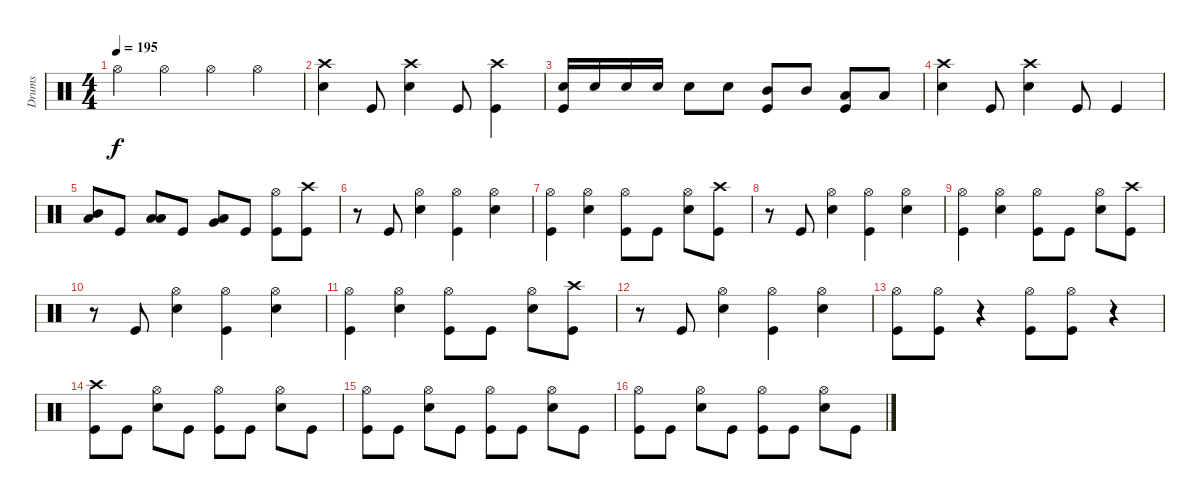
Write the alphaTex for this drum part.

\track ("Drums" "Drums") {instrument percussion}
\staff {score}
\articulation defaults
\ts (4 4)
\tempo 195
\clef neutral
\ks c "Hi-Hat (open)".4{dy f} "Hi-Hat (open)".4 "Hi-Hat (open)".4 "Hi-Hat (open)".4
|
("Crash high (hit)" "Electric Snare (hit)").4 "Kick (hit)".8 ("Crash high (hit)" "Electric Snare (hit)").4 "Kick (hit)".8 ("Crash high (hit)" "Kick (hit)").4 |
("Electric Snare (hit)" "Kick (hit)").16 "Electric Snare (hit)".16 "Electric Snare (hit)".16 "Electric Snare (hit)".16 "Electric Snare (hit)".8 "Electric Snare (hit)".8 ("Mid Tom (hit)" "Kick (hit)").8 "Mid Tom (hit)".8 ("Low Tom (hit)" "Kick (hit)").8 "Low Tom (hit)".8 |
("Crash high (hit)" "Electric Snare (hit)").4 "Kick (hit)".8 ("Crash high (hit)" "Electric Snare (hit)").4 "Kick (hit)".8 "Kick (hit)".4 |
("Mid Tom (hit)" "Low Tom (hit)").8 "Kick (hit)".8 ("Low Tom (hit)" "Low Tom (hit)").8 "Kick (hit)".8 ("Very Low Tom (hit)" "Low Floor Tom (hit)").8 "Kick (hit)".8 ("Hi-Hat (open)" "Kick (hit)").8 ("Crash high (hit)" "Kick (hit)").8 |
r.8 "Kick (hit)".8 ("Hi-Hat (open)" "Electric Snare (hit)").4 ("Hi-Hat (open)" "Kick (hit)").4 ("Hi-Hat (open)" "Electric Snare (hit)").4 |
("Hi-Hat (open)" "Kick (hit)").4 ("Hi-Hat (open)" "Electric Snare (hit)").4 ("Hi-Hat (open)" "Kick (hit)").8 "Kick (hit)".8 ("Hi-Hat (open)" "Electric Snare (hit)").8 ("Crash high (hit)" "Kick (hit)").8 |
r.8 "Kick (hit)".8 ("Hi-Hat (open)" "Electric Snare (hit)").4 ("Hi-Hat (open)" "Kick (hit)").4 ("Hi-Hat (open)" "Electric Snare (hit)").4 |
("Hi-Hat (open)" "Kick (hit)").4 ("Hi-Hat (open)" "Electric Snare (hit)").4 ("Hi-Hat (open)" "Kick (hit)").8 "Kick (hit)".8 ("Hi-Hat (open)" "Electric Snare (hit)").8 ("Crash high (hit)" "Kick (hit)").8 |
r.8 "Kick (hit)".8 ("Hi-Hat (open)" "Electric Snare (hit)").4 ("Hi-Hat (open)" "Kick (hit)").4 ("Hi-Hat (open)" "Electric Snare (hit)").4 |
("Hi-Hat (open)" "Kick (hit)").4 ("Hi-Hat (open)" "Electric Snare (hit)").4 ("Hi-Hat (open)" "Kick (hit)").8 "Kick (hit)".8 ("Hi-Hat (open)" "Electric Snare (hit)").8 ("Crash high (hit)" "Kick (hit)").8 |
r.8 "Kick (hit)".8 ("Hi-Hat (open)" "Electric Snare (hit)").4 ("Hi-Hat (open)" "Kick (hit)").4 ("Hi-Hat (open)" "Electric Snare (hit)").4 |
("Hi-Hat (open)" "Kick (hit)").8 ("Hi-Hat (open)" "Kick (hit)").8 r.4 ("Hi-Hat (open)" "Kick (hit)").8 ("Hi-Hat (open)" "Kick (hit)").8 r.4 |
("Crash high (hit)" "Kick (hit)").8 "Kick (hit)".8 ("Hi-Hat (open)" "Electric Snare (hit)").8 "Kick (hit)".8 ("Hi-Hat (open)" "Kick (hit)").8 "Kick (hit)".8 ("Hi-Hat (open)" "Electric Snare (hit)").8 "Kick (hit)".8 |
("Hi-Hat (open)" "Kick (hit)").8 "Kick (hit)".8 ("Hi-Hat (open)" "Electric Snare (hit)").8 "Kick (hit)".8 ("Hi-Hat (open)" "Kick (hit)").8 "Kick (hit)".8 ("Hi-Hat (open)" "Electric Snare (hit)").8 "Kick (hit)".8 |
("Hi-Hat (open)" "Kick (hit)").8 "Kick (hit)".8 ("Hi-Hat (open)" "Electric Snare (hit)").8 "Kick (hit)".8 ("Hi-Hat (open)" "Kick (hit)").8 "Kick (hit)".8 ("Hi-Hat (open)" "Electric Snare (hit)").8 "Kick (hit)".8
